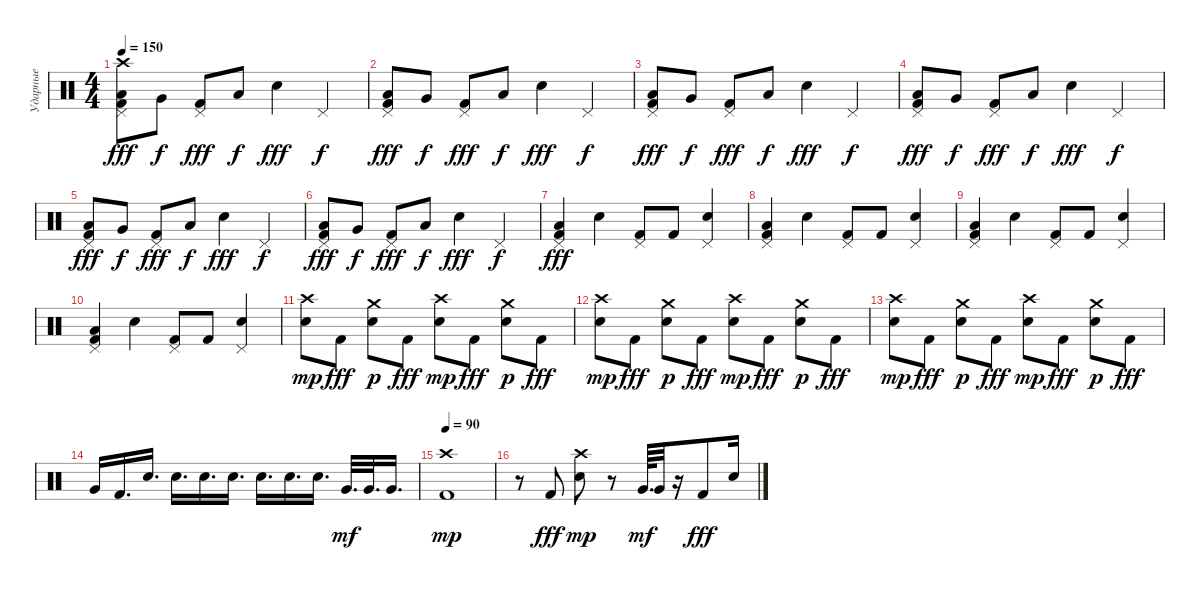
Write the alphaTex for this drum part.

\track ("Ударные" "Ударные") {instrument percussion}
\staff {score}
\articulation defaults
\ts (4 4)
\tempo 150
\clef neutral
\ks c
("Pedal Hi-Hat (hit)" "Kick (hit) 2" "Low Tom (hit)" "Crash high (hit)").8{dy fff} "Very Low Tom (hit)".8{dy f} ("Pedal Hi-Hat (hit)" "Kick (hit) 2").8{dy fff} "Low Floor Tom (hit)".8{dy f} "Electric Snare (hit)".4{dy fff} "Pedal Hi-Hat (hit)".4{dy f} |
("Pedal Hi-Hat (hit)" "Kick (hit) 2" "Low Tom (hit)").8{dy fff} "Very Low Tom (hit)".8{dy f} ("Pedal Hi-Hat (hit)" "Kick (hit) 2").8{dy fff} "Low Floor Tom (hit)".8{dy f} "Electric Snare (hit)".4{dy fff} "Pedal Hi-Hat (hit)".4{dy f} |
("Pedal Hi-Hat (hit)" "Kick (hit) 2" "Low Tom (hit)").8{dy fff} "Very Low Tom (hit)".8{dy f} ("Pedal Hi-Hat (hit)" "Kick (hit) 2").8{dy fff} "Low Floor Tom (hit)".8{dy f} "Electric Snare (hit)".4{dy fff} "Pedal Hi-Hat (hit)".4{dy f} |
("Pedal Hi-Hat (hit)" "Kick (hit) 2" "Low Tom (hit)").8{dy fff} "Very Low Tom (hit)".8{dy f} ("Pedal Hi-Hat (hit)" "Kick (hit) 2").8{dy fff} "Low Floor Tom (hit)".8{dy f} "Electric Snare (hit)".4{dy fff} "Pedal Hi-Hat (hit)".4{dy f} |
("Pedal Hi-Hat (hit)" "Kick (hit) 2" "Low Tom (hit)").8{dy fff} "Very Low Tom (hit)".8{dy f} ("Pedal Hi-Hat (hit)" "Kick (hit) 2").8{dy fff} "Low Floor Tom (hit)".8{dy f} "Electric Snare (hit)".4{dy fff} "Pedal Hi-Hat (hit)".4{dy f} |
("Pedal Hi-Hat (hit)" "Kick (hit) 2" "Low Tom (hit)").8{dy fff} "Very Low Tom (hit)".8{dy f} ("Pedal Hi-Hat (hit)" "Kick (hit) 2").8{dy fff} "Low Floor Tom (hit)".8{dy f} "Electric Snare (hit)".4{dy fff} "Pedal Hi-Hat (hit)".4{dy f} |
("Pedal Hi-Hat (hit)" "Kick (hit) 2" "Low Tom (hit)").4{dy fff} "Electric Snare (hit)".4 ("Pedal Hi-Hat (hit)" "Kick (hit) 2").8 "Kick (hit) 2".8 ("Pedal Hi-Hat (hit)" "Electric Snare (hit)").4 |
("Pedal Hi-Hat (hit)" "Kick (hit) 2" "Low Tom (hit)").4 "Electric Snare (hit)".4 ("Pedal Hi-Hat (hit)" "Kick (hit) 2").8 "Kick (hit) 2".8 ("Pedal Hi-Hat (hit)" "Electric Snare (hit)").4 |
("Pedal Hi-Hat (hit)" "Kick (hit) 2" "Low Tom (hit)").4 "Electric Snare (hit)".4 ("Pedal Hi-Hat (hit)" "Kick (hit) 2").8 "Kick (hit) 2".8 ("Pedal Hi-Hat (hit)" "Electric Snare (hit)").4 |
("Pedal Hi-Hat (hit)" "Kick (hit) 2" "Low Tom (hit)").4 "Electric Snare (hit)".4 ("Pedal Hi-Hat (hit)" "Kick (hit) 2").8 "Kick (hit) 2".8 ("Pedal Hi-Hat (hit)" "Electric Snare (hit)").4 |
("Electric Snare (hit)" "Crash high (hit)").8{dy mp} "Kick (hit) 2".8{dy fff} ("Electric Snare (hit)" "Crash medium (hit)").8{dy p} "Kick (hit) 2".8{dy fff} ("Electric Snare (hit)" "Crash high (hit)").8{dy mp} "Kick (hit) 2".8{dy fff} ("Electric Snare (hit)" "Crash medium (hit)").8{dy p} "Kick (hit) 2".8{dy fff} |
("Electric Snare (hit)" "Crash high (hit)").8{dy mp} "Kick (hit) 2".8{dy fff} ("Electric Snare (hit)" "Crash medium (hit)").8{dy p} "Kick (hit) 2".8{dy fff} ("Electric Snare (hit)" "Crash high (hit)").8{dy mp} "Kick (hit) 2".8{dy fff} ("Electric Snare (hit)" "Crash medium (hit)").8{dy p} "Kick (hit) 2".8{dy fff} |
("Electric Snare (hit)" "Crash high (hit)").8{dy mp} "Kick (hit) 2".8{dy fff} ("Electric Snare (hit)" "Crash medium (hit)").8{dy p} "Kick (hit) 2".8{dy fff} ("Electric Snare (hit)" "Crash high (hit)").8{dy mp} "Kick (hit) 2".8{dy fff} ("Electric Snare (hit)" "Crash medium (hit)").8{dy p} "Kick (hit) 2".8{dy fff} |
"Very Low Tom (hit)".16 "Kick (hit) 2".16{d} "Electric Snare (hit)".16{d} "Snare (hit) 2".16{d} "Snare (hit) 2".16{d} "Snare (hit) 2".16{d} "Electric Snare (hit)".16{d} "Electric Snare (hit)".16{d} "Electric Snare (hit)".16{d} "Very Low Tom (hit)".32{d dy mf} "Very Low Tom (hit)".32{d} "Very Low Tom (hit)".16{d} |
\tempo 90
("Kick (hit) 2" "Crash high (hit)").1{dy mp} |
r.8 "Kick (hit) 2".8{dy fff} ("Snare (hit) 2" "Crash high (hit)").8{dy mp} r.8 "Very Low Tom (hit)".64{d dy mf} "Very Low Tom (hit)".32 r.16 "Kick (hit) 2".8{dy fff} "Electric Snare (hit)".16
